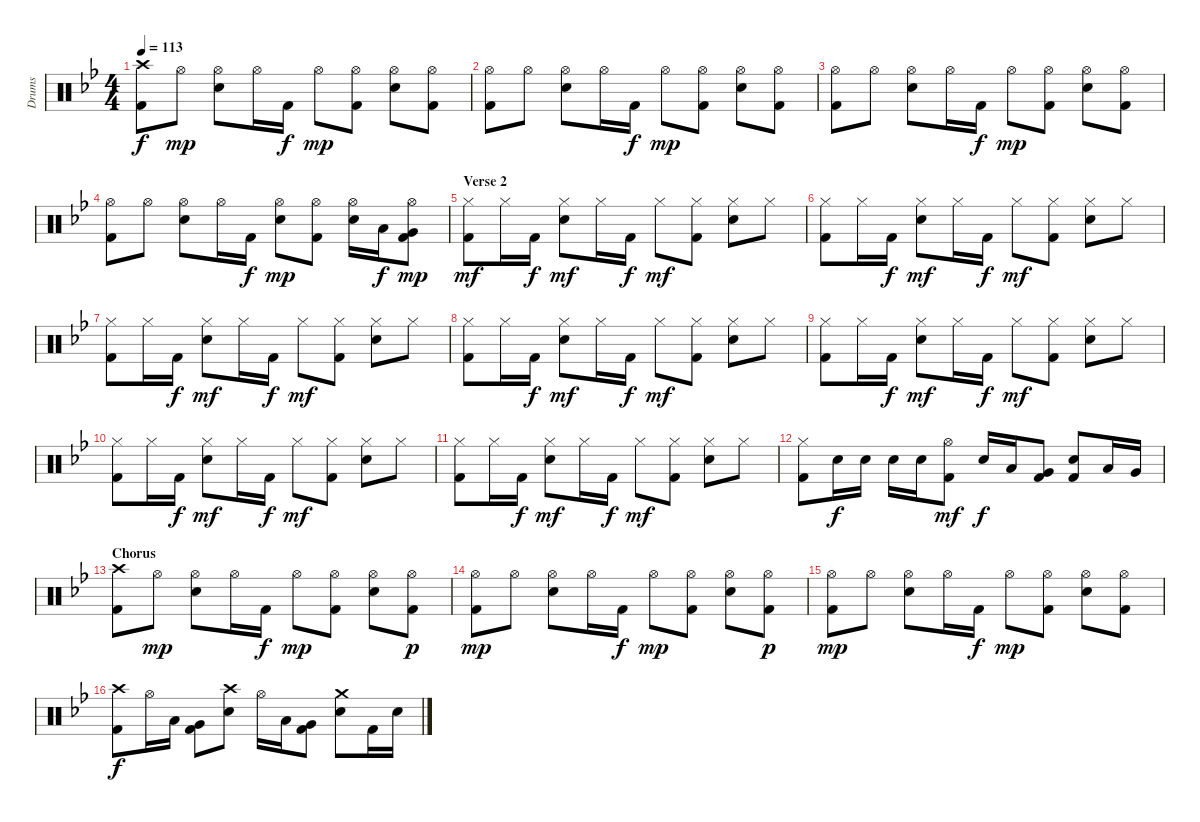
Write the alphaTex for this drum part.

\track ("Drums" "Drums") {instrument percussion}
\staff {score}
\articulation defaults
\ts (4 4)
\tempo 113
\clef neutral
\ks bb
("Crash high (hit)" "Kick (hit) 2").8{dy f} "Hi-Hat (open)".8{dy mp} ("Hi-Hat (open)" "Electric Snare (hit)").8 "Hi-Hat (open)".16 "Kick (hit) 2".16{dy f} "Hi-Hat (open)".8{dy mp} ("Hi-Hat (open)" "Kick (hit) 2").8 ("Hi-Hat (open)" "Electric Snare (hit)").8 ("Hi-Hat (open)" "Kick (hit) 2").8 |
("Hi-Hat (open)" "Kick (hit) 2").8 "Hi-Hat (open)".8 ("Hi-Hat (open)" "Electric Snare (hit)").8 "Hi-Hat (open)".16 "Kick (hit) 2".16{dy f} "Hi-Hat (open)".8{dy mp} ("Hi-Hat (open)" "Kick (hit) 2").8 ("Hi-Hat (open)" "Electric Snare (hit)").8 ("Hi-Hat (open)" "Kick (hit) 2").8 |
("Hi-Hat (open)" "Kick (hit) 2").8 "Hi-Hat (open)".8 ("Hi-Hat (open)" "Electric Snare (hit)").8 "Hi-Hat (open)".16 "Kick (hit) 2".16{dy f} "Hi-Hat (open)".8{dy mp} ("Hi-Hat (open)" "Kick (hit) 2").8 ("Hi-Hat (open)" "Electric Snare (hit)").8 ("Hi-Hat (open)" "Kick (hit) 2").8 |
("Hi-Hat (open)" "Kick (hit) 2").8 "Hi-Hat (open)".8 ("Hi-Hat (open)" "Electric Snare (hit)").8 "Hi-Hat (open)".16 "Kick (hit) 2".16{dy f} ("Hi-Hat (open)" "Electric Snare (hit)").8{dy mp} ("Hi-Hat (open)" "Kick (hit) 2").8 ("Hi-Hat (open)" "Electric Snare (hit)").16 "Low Tom (hit)".16{dy f} ("Hi-Hat (open)" "Very Low Tom (hit)" "Kick (hit) 2").8{dy mp} |
\section ("" "Verse 2")
("Hi-Hat (closed)" "Kick (hit) 2").8{dy mf} "Hi-Hat (closed)".16 "Kick (hit) 2".16{dy f} ("Hi-Hat (closed)" "Electric Snare (hit)").8{dy mf} "Hi-Hat (closed)".16 "Kick (hit) 2".16{dy f} "Hi-Hat (closed)".8{dy mf} ("Hi-Hat (closed)" "Kick (hit) 2").8 ("Hi-Hat (closed)" "Electric Snare (hit)").8 "Hi-Hat (closed)".8 |
("Hi-Hat (closed)" "Kick (hit) 2").8 "Hi-Hat (closed)".16 "Kick (hit) 2".16{dy f} ("Hi-Hat (closed)" "Electric Snare (hit)").8{dy mf} "Hi-Hat (closed)".16 "Kick (hit) 2".16{dy f} "Hi-Hat (closed)".8{dy mf} ("Hi-Hat (closed)" "Kick (hit) 2").8 ("Hi-Hat (closed)" "Electric Snare (hit)").8 "Hi-Hat (closed)".8 |
("Hi-Hat (closed)" "Kick (hit) 2").8 "Hi-Hat (closed)".16 "Kick (hit) 2".16{dy f} ("Hi-Hat (closed)" "Electric Snare (hit)").8{dy mf} "Hi-Hat (closed)".16 "Kick (hit) 2".16{dy f} "Hi-Hat (closed)".8{dy mf} ("Hi-Hat (closed)" "Kick (hit) 2").8 ("Hi-Hat (closed)" "Electric Snare (hit)").8 "Hi-Hat (closed)".8 |
("Hi-Hat (closed)" "Kick (hit) 2").8 "Hi-Hat (closed)".16 "Kick (hit) 2".16{dy f} ("Hi-Hat (closed)" "Electric Snare (hit)").8{dy mf} "Hi-Hat (closed)".16 "Kick (hit) 2".16{dy f} "Hi-Hat (closed)".8{dy mf} ("Hi-Hat (closed)" "Kick (hit) 2").8 ("Hi-Hat (closed)" "Electric Snare (hit)").8 "Hi-Hat (closed)".8 |
("Hi-Hat (closed)" "Kick (hit) 2").8 "Hi-Hat (closed)".16 "Kick (hit) 2".16{dy f} ("Hi-Hat (closed)" "Electric Snare (hit)").8{dy mf} "Hi-Hat (closed)".16 "Kick (hit) 2".16{dy f} "Hi-Hat (closed)".8{dy mf} ("Hi-Hat (closed)" "Kick (hit) 2").8 ("Hi-Hat (closed)" "Electric Snare (hit)").8 "Hi-Hat (closed)".8 |
("Hi-Hat (closed)" "Kick (hit) 2").8 "Hi-Hat (closed)".16 "Kick (hit) 2".16{dy f} ("Hi-Hat (closed)" "Electric Snare (hit)").8{dy mf} "Hi-Hat (closed)".16 "Kick (hit) 2".16{dy f} "Hi-Hat (closed)".8{dy mf} ("Hi-Hat (closed)" "Kick (hit) 2").8 ("Hi-Hat (closed)" "Electric Snare (hit)").8 "Hi-Hat (closed)".8 |
("Hi-Hat (closed)" "Kick (hit) 2").8 "Hi-Hat (closed)".16 "Kick (hit) 2".16{dy f} ("Hi-Hat (closed)" "Electric Snare (hit)").8{dy mf} "Hi-Hat (closed)".16 "Kick (hit) 2".16{dy f} "Hi-Hat (closed)".8{dy mf} ("Hi-Hat (closed)" "Kick (hit) 2").8 ("Hi-Hat (closed)" "Electric Snare (hit)").8 "Hi-Hat (closed)".8 |
("Hi-Hat (closed)" "Kick (hit) 2").8 "Electric Snare (hit)".16{dy f} "Electric Snare (hit)".16 "Electric Snare (hit)".16 "Electric Snare (hit)".16 ("Hi-Hat (open)" "Kick (hit) 2").8{dy mf} "Electric Snare (hit)".16{dy f} "Low Tom (hit)".16 ("Very Low Tom (hit)" "Kick (hit) 2").8 ("Electric Snare (hit)" "Kick (hit) 2").8 "Low Tom (hit)".16 "Very Low Tom (hit)".16 |
\section ("" "Chorus")
("Crash high (hit)" "Kick (hit) 2").8 "Hi-Hat (open)".8{dy mp} ("Hi-Hat (open)" "Electric Snare (hit)").8 "Hi-Hat (open)".16 "Kick (hit) 2".16{dy f} "Hi-Hat (open)".8{dy mp} ("Hi-Hat (open)" "Kick (hit) 2").8 ("Hi-Hat (open)" "Electric Snare (hit)").8 ("Hi-Hat (open)" "Kick (hit) 2").8{dy p} |
("Hi-Hat (open)" "Kick (hit) 2").8{dy mp} "Hi-Hat (open)".8 ("Hi-Hat (open)" "Electric Snare (hit)").8 "Hi-Hat (open)".16 "Kick (hit) 2".16{dy f} "Hi-Hat (open)".8{dy mp} ("Hi-Hat (open)" "Kick (hit) 2").8 ("Hi-Hat (open)" "Electric Snare (hit)").8 ("Hi-Hat (open)" "Kick (hit) 2").8{dy p} |
("Hi-Hat (open)" "Kick (hit) 2").8{dy mp} "Hi-Hat (open)".8 ("Hi-Hat (open)" "Electric Snare (hit)").8 "Hi-Hat (open)".16 "Kick (hit) 2".16{dy f} "Hi-Hat (open)".8{dy mp} ("Hi-Hat (open)" "Kick (hit) 2").8 ("Hi-Hat (open)" "Electric Snare (hit)").8 ("Hi-Hat (open)" "Kick (hit) 2").8 |
("Crash high (hit)" "Kick (hit) 2").8{dy f} "Hi-Hat (open)".16 "Low Tom (hit)".16 ("Very Low Tom (hit)" "Kick (hit) 2").8 ("Crash high (hit)" "Electric Snare (hit)").8 "Hi-Hat (open)".16 "Low Tom (hit)".16 ("Very Low Tom (hit)" "Kick (hit) 2").8 ("Crash medium (hit)" "Electric Snare (hit)").8 "Kick (hit) 2".16 "Electric Snare (hit)".16
